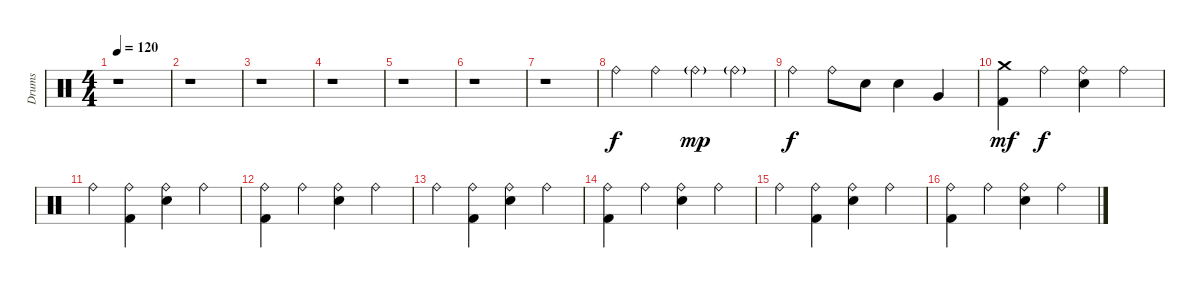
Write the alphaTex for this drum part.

\track ("Drums" "Drums") {instrument percussion}
\staff {score}
\articulation defaults
\ts (4 4)
\tempo 120
\clef neutral
\ks c
r.1{dy f} |
r.1 |
r.1 |
r.1 |
r.1 |
r.1 |
r.1 |
"Ride (bell)".4 "Ride (bell)".4 "Ride (bell)"{g}.4{dy mp} "Ride (bell)"{g}.4 |
"Ride (bell)".4{dy f} "Ride (bell)".8 "Electric Snare (hit)".8 "Electric Snare (hit)".4 "Very Low Tom (hit)".4 |
("Crash medium (hit)" "Kick (hit) 2").4{dy mf} "Ride (bell)".4{dy f} ("Ride (bell)" "Electric Snare (hit)").4 "Ride (bell)".4 |
"Ride (bell)".4 ("Ride (bell)" "Kick (hit) 2").4 ("Ride (bell)" "Electric Snare (hit)").4 "Ride (bell)".4 |
("Ride (bell)" "Kick (hit) 2").4 "Ride (bell)".4 ("Ride (bell)" "Electric Snare (hit)").4 "Ride (bell)".4 |
"Ride (bell)".4 ("Ride (bell)" "Kick (hit) 2").4 ("Ride (bell)" "Electric Snare (hit)").4 "Ride (bell)".4 |
("Ride (bell)" "Kick (hit) 2").4 "Ride (bell)".4 ("Ride (bell)" "Electric Snare (hit)").4 "Ride (bell)".4 |
"Ride (bell)".4 ("Ride (bell)" "Kick (hit) 2").4 ("Ride (bell)" "Electric Snare (hit)").4 "Ride (bell)".4 |
("Ride (bell)" "Kick (hit) 2").4 "Ride (bell)".4 ("Ride (bell)" "Electric Snare (hit)").4 "Ride (bell)".4
